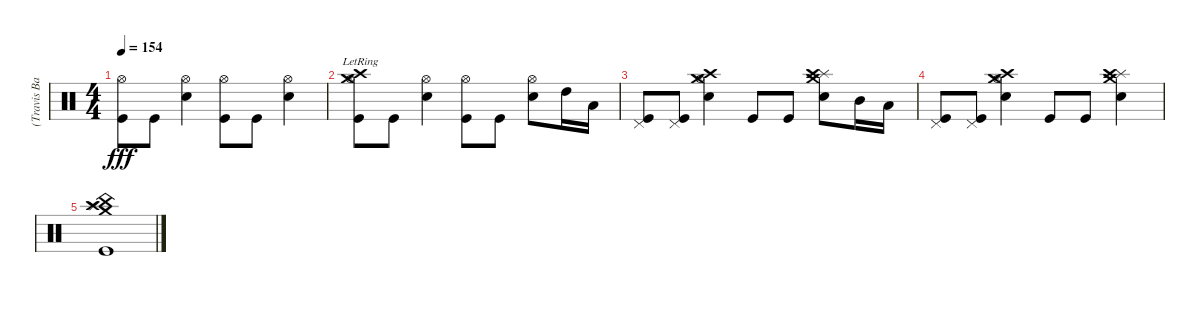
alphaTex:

\track ("(Travis Barker) Drums" "(Travis Ba") {instrument percussion}
\staff {score}
\articulation defaults
\ts (4 4)
\tempo 154
\clef neutral
\ks c
("Hi-Hat (open)" "Kick (hit)").8{dy fff} "Kick (hit)".8 ("Hi-Hat (open)" "Snare (hit) 2").4 ("Hi-Hat (open)" "Kick (hit)").8 "Kick (hit)".8 ("Hi-Hat (open)" "Snare (hit) 2").4 |
("Crash high (hit)"{lr} "Hi-Hat (open)" "Crash medium (hit)"{lr} "Kick (hit)").8 "Kick (hit)".8 ("Hi-Hat (open)" "Snare (hit) 2").4 ("Hi-Hat (open)" "Kick (hit)").8 "Kick (hit)".8 ("Hi-Hat (open)" "Snare (hit) 2").8 "High Tom (hit)".16 "Low Tom (hit)".16 |
("Pedal Hi-Hat (hit)" "Kick (hit)").8 ("Pedal Hi-Hat (hit)" "Kick (hit)").8 ("Crash high (hit)" "Crash medium (hit)" "Hi-Hat (open)" "Snare (hit) 2").4 "Kick (hit)".8 "Kick (hit)".8 ("Crash medium (hit)" "Splash (hit)" "Crash high (hit)" "Snare (hit) 2").8 "Mid Tom (hit)".16 "Low Tom (hit)".16 |
("Pedal Hi-Hat (hit)" "Kick (hit)").8 ("Pedal Hi-Hat (hit)" "Kick (hit)").8 ("Crash high (hit)" "Crash medium (hit)" "Hi-Hat (open)" "Snare (hit) 2").4 "Kick (hit)".8 "Kick (hit)".8 ("Crash medium (hit)" "Splash (hit)" "Crash high (hit)" "Snare (hit) 2").4 |
("Crash medium (hit)" "Splash (hit)" "Crash high (hit)" "China (hit)" "Kick (hit)").1
